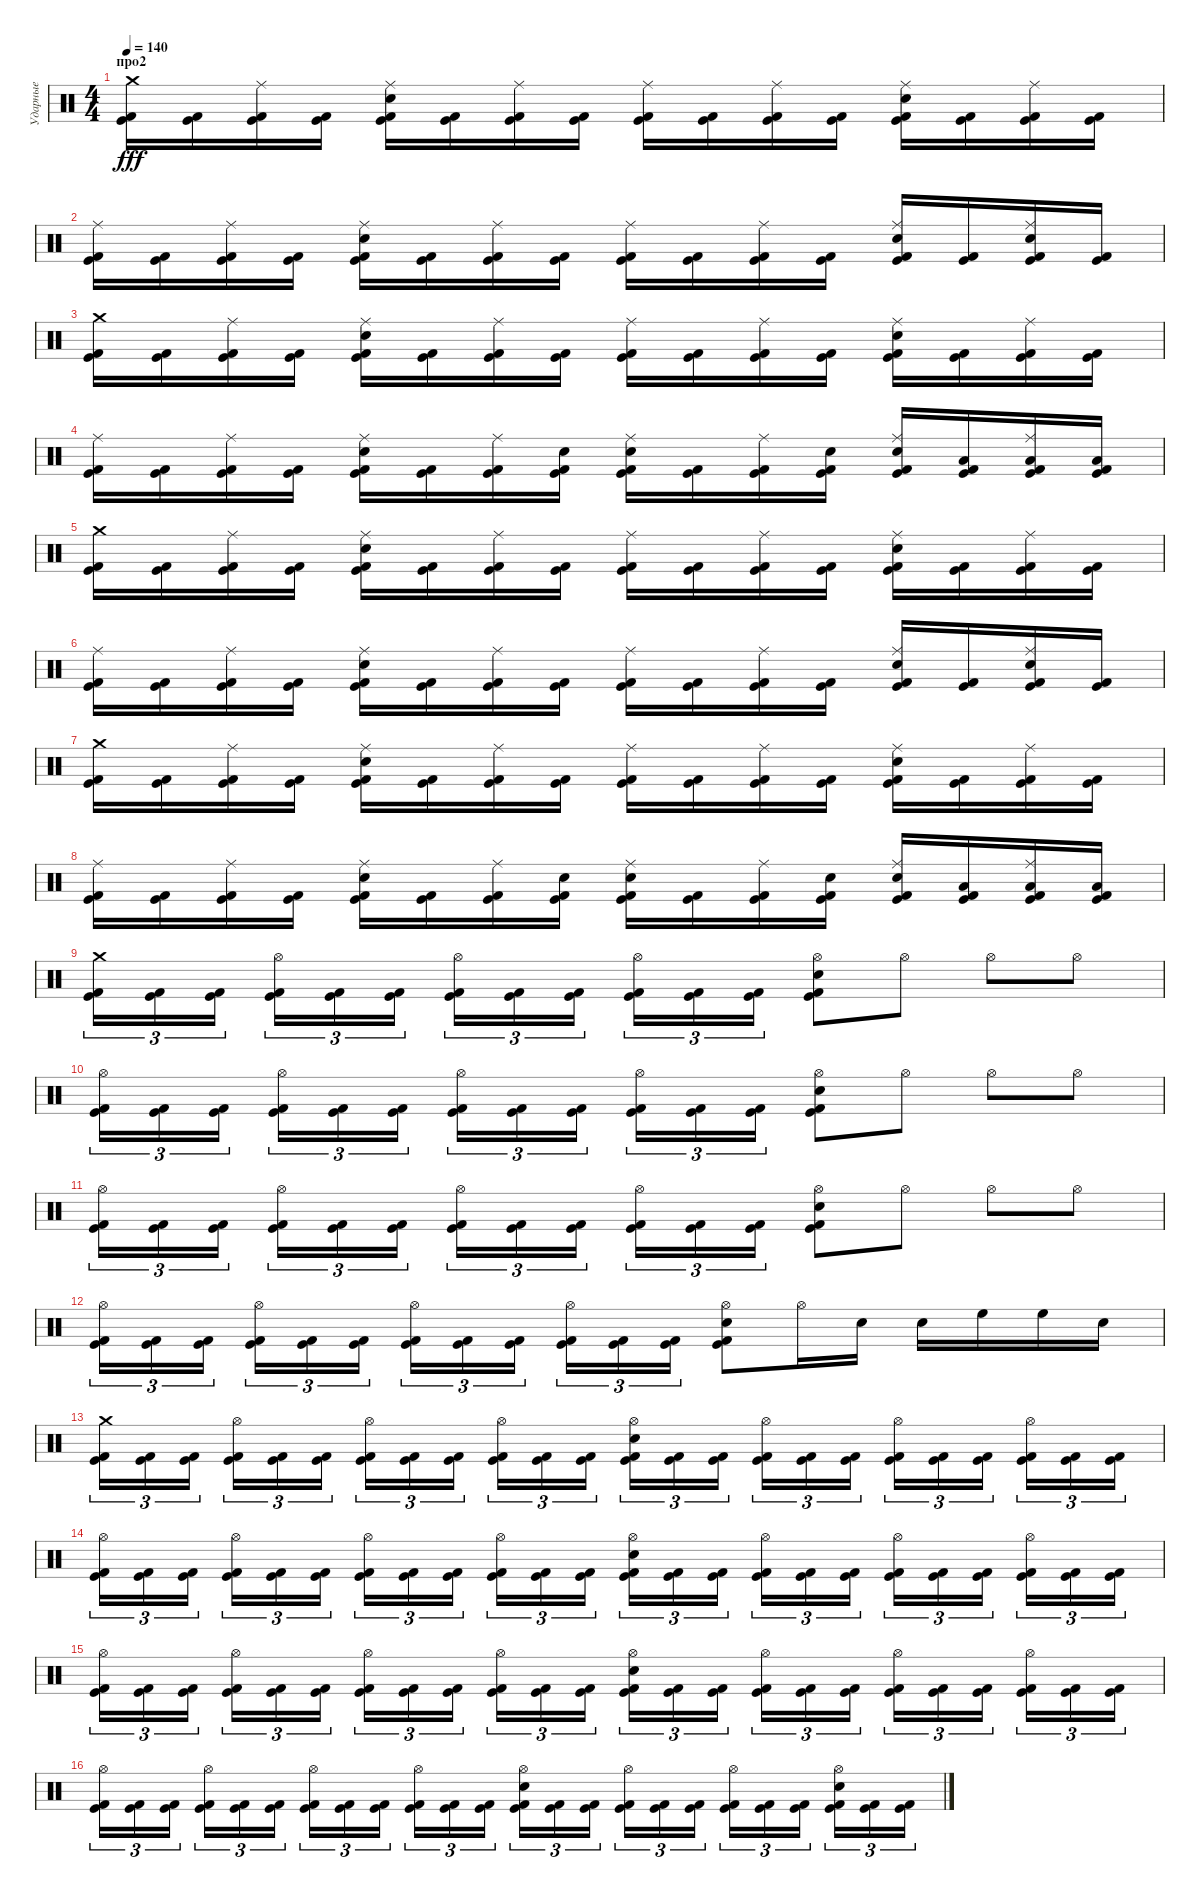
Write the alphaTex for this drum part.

\track ("Ударные" "Ударные") {instrument percussion}
\staff {score}
\articulation defaults
\ts (4 4)
\section ("" "про2")
\tempo 140
\clef neutral
\ks c
("Kick (hit)" "Kick (hit) 2" "Crash medium (hit)").16{dy fff} ("Kick (hit)" "Kick (hit) 2").16 ("Kick (hit)" "Kick (hit) 2" "Ride (middle)").16 ("Kick (hit)" "Kick (hit) 2").16 ("Kick (hit)" "Kick (hit) 2" "Ride (middle)" "Electric Snare (hit)").16 ("Kick (hit)" "Kick (hit) 2").16 ("Kick (hit)" "Kick (hit) 2" "Ride (middle)").16 ("Kick (hit)" "Kick (hit) 2").16 ("Kick (hit)" "Kick (hit) 2" "Ride (middle)").16 ("Kick (hit)" "Kick (hit) 2").16 ("Kick (hit)" "Kick (hit) 2" "Ride (middle)").16 ("Kick (hit)" "Kick (hit) 2").16 ("Kick (hit)" "Kick (hit) 2" "Ride (middle)" "Electric Snare (hit)").16 ("Kick (hit)" "Kick (hit) 2").16 ("Kick (hit)" "Kick (hit) 2" "Ride (middle)").16 ("Kick (hit)" "Kick (hit) 2").16 |
("Kick (hit)" "Kick (hit) 2" "Ride (middle)").16 ("Kick (hit)" "Kick (hit) 2").16 ("Kick (hit)" "Kick (hit) 2" "Ride (middle)").16 ("Kick (hit)" "Kick (hit) 2").16 ("Kick (hit)" "Kick (hit) 2" "Ride (middle)" "Electric Snare (hit)").16 ("Kick (hit)" "Kick (hit) 2").16 ("Kick (hit)" "Kick (hit) 2" "Ride (middle)").16 ("Kick (hit)" "Kick (hit) 2").16 ("Kick (hit)" "Kick (hit) 2" "Ride (middle)").16 ("Kick (hit)" "Kick (hit) 2").16 ("Kick (hit)" "Kick (hit) 2" "Ride (middle)").16 ("Kick (hit)" "Kick (hit) 2").16 ("Kick (hit)" "Kick (hit) 2" "Ride (middle)" "Electric Snare (hit)").16 ("Kick (hit)" "Kick (hit) 2").16 ("Kick (hit)" "Kick (hit) 2" "Ride (middle)" "Electric Snare (hit)").16 ("Kick (hit)" "Kick (hit) 2").16 |
("Kick (hit)" "Kick (hit) 2" "Crash medium (hit)").16 ("Kick (hit)" "Kick (hit) 2").16 ("Kick (hit)" "Kick (hit) 2" "Ride (middle)").16 ("Kick (hit)" "Kick (hit) 2").16 ("Kick (hit)" "Kick (hit) 2" "Ride (middle)" "Electric Snare (hit)").16 ("Kick (hit)" "Kick (hit) 2").16 ("Kick (hit)" "Kick (hit) 2" "Ride (middle)").16 ("Kick (hit)" "Kick (hit) 2").16 ("Kick (hit)" "Kick (hit) 2" "Ride (middle)").16 ("Kick (hit)" "Kick (hit) 2").16 ("Kick (hit)" "Kick (hit) 2" "Ride (middle)").16 ("Kick (hit)" "Kick (hit) 2").16 ("Kick (hit)" "Kick (hit) 2" "Ride (middle)" "Electric Snare (hit)").16 ("Kick (hit)" "Kick (hit) 2").16 ("Kick (hit)" "Kick (hit) 2" "Ride (middle)").16 ("Kick (hit)" "Kick (hit) 2").16 |
("Kick (hit)" "Kick (hit) 2" "Ride (middle)").16 ("Kick (hit)" "Kick (hit) 2").16 ("Kick (hit)" "Kick (hit) 2" "Ride (middle)").16 ("Kick (hit)" "Kick (hit) 2").16 ("Kick (hit)" "Kick (hit) 2" "Ride (middle)" "Electric Snare (hit)").16 ("Kick (hit)" "Kick (hit) 2").16 ("Kick (hit)" "Kick (hit) 2" "Ride (middle)").16 ("Kick (hit)" "Kick (hit) 2" "Electric Snare (hit)").16 ("Kick (hit)" "Kick (hit) 2" "Ride (middle)" "Electric Snare (hit)").16 ("Kick (hit)" "Kick (hit) 2").16 ("Kick (hit)" "Kick (hit) 2" "Ride (middle)").16 ("Kick (hit)" "Kick (hit) 2" "Electric Snare (hit)").16 ("Kick (hit)" "Kick (hit) 2" "Ride (middle)" "Electric Snare (hit)").16 ("Kick (hit)" "Kick (hit) 2" "Low Tom (hit)").16 ("Kick (hit)" "Kick (hit) 2" "Ride (middle)" "Low Tom (hit)").16 ("Kick (hit)" "Kick (hit) 2" "Low Tom (hit)").16 |
("Kick (hit)" "Kick (hit) 2" "Crash medium (hit)").16 ("Kick (hit)" "Kick (hit) 2").16 ("Kick (hit)" "Kick (hit) 2" "Ride (middle)").16 ("Kick (hit)" "Kick (hit) 2").16 ("Kick (hit)" "Kick (hit) 2" "Ride (middle)" "Electric Snare (hit)").16 ("Kick (hit)" "Kick (hit) 2").16 ("Kick (hit)" "Kick (hit) 2" "Ride (middle)").16 ("Kick (hit)" "Kick (hit) 2").16 ("Kick (hit)" "Kick (hit) 2" "Ride (middle)").16 ("Kick (hit)" "Kick (hit) 2").16 ("Kick (hit)" "Kick (hit) 2" "Ride (middle)").16 ("Kick (hit)" "Kick (hit) 2").16 ("Kick (hit)" "Kick (hit) 2" "Ride (middle)" "Electric Snare (hit)").16 ("Kick (hit)" "Kick (hit) 2").16 ("Kick (hit)" "Kick (hit) 2" "Ride (middle)").16 ("Kick (hit)" "Kick (hit) 2").16 |
("Kick (hit)" "Kick (hit) 2" "Ride (middle)").16 ("Kick (hit)" "Kick (hit) 2").16 ("Kick (hit)" "Kick (hit) 2" "Ride (middle)").16 ("Kick (hit)" "Kick (hit) 2").16 ("Kick (hit)" "Kick (hit) 2" "Ride (middle)" "Electric Snare (hit)").16 ("Kick (hit)" "Kick (hit) 2").16 ("Kick (hit)" "Kick (hit) 2" "Ride (middle)").16 ("Kick (hit)" "Kick (hit) 2").16 ("Kick (hit)" "Kick (hit) 2" "Ride (middle)").16 ("Kick (hit)" "Kick (hit) 2").16 ("Kick (hit)" "Kick (hit) 2" "Ride (middle)").16 ("Kick (hit)" "Kick (hit) 2").16 ("Kick (hit)" "Kick (hit) 2" "Ride (middle)" "Electric Snare (hit)").16 ("Kick (hit)" "Kick (hit) 2").16 ("Kick (hit)" "Kick (hit) 2" "Ride (middle)" "Electric Snare (hit)").16 ("Kick (hit)" "Kick (hit) 2").16 |
("Kick (hit)" "Kick (hit) 2" "Crash medium (hit)").16 ("Kick (hit)" "Kick (hit) 2").16 ("Kick (hit)" "Kick (hit) 2" "Ride (middle)").16 ("Kick (hit)" "Kick (hit) 2").16 ("Kick (hit)" "Kick (hit) 2" "Ride (middle)" "Electric Snare (hit)").16 ("Kick (hit)" "Kick (hit) 2").16 ("Kick (hit)" "Kick (hit) 2" "Ride (middle)").16 ("Kick (hit)" "Kick (hit) 2").16 ("Kick (hit)" "Kick (hit) 2" "Ride (middle)").16 ("Kick (hit)" "Kick (hit) 2").16 ("Kick (hit)" "Kick (hit) 2" "Ride (middle)").16 ("Kick (hit)" "Kick (hit) 2").16 ("Kick (hit)" "Kick (hit) 2" "Ride (middle)" "Electric Snare (hit)").16 ("Kick (hit)" "Kick (hit) 2").16 ("Kick (hit)" "Kick (hit) 2" "Ride (middle)").16 ("Kick (hit)" "Kick (hit) 2").16 |
("Kick (hit)" "Kick (hit) 2" "Ride (middle)").16 ("Kick (hit)" "Kick (hit) 2").16 ("Kick (hit)" "Kick (hit) 2" "Ride (middle)").16 ("Kick (hit)" "Kick (hit) 2").16 ("Kick (hit)" "Kick (hit) 2" "Ride (middle)" "Electric Snare (hit)").16 ("Kick (hit)" "Kick (hit) 2").16 ("Kick (hit)" "Kick (hit) 2" "Ride (middle)").16 ("Kick (hit)" "Kick (hit) 2" "Electric Snare (hit)").16 ("Kick (hit)" "Kick (hit) 2" "Ride (middle)" "Electric Snare (hit)").16 ("Kick (hit)" "Kick (hit) 2").16 ("Kick (hit)" "Kick (hit) 2" "Ride (middle)").16 ("Kick (hit)" "Kick (hit) 2" "Electric Snare (hit)").16 ("Kick (hit)" "Kick (hit) 2" "Ride (middle)" "Electric Snare (hit)").16 ("Kick (hit)" "Kick (hit) 2" "Low Tom (hit)").16 ("Kick (hit)" "Kick (hit) 2" "Ride (middle)" "Low Tom (hit)").16 ("Kick (hit)" "Kick (hit) 2" "Low Tom (hit)").16 |
("Kick (hit)" "Kick (hit) 2" "Crash medium (hit)").16{tu (3 2)} ("Kick (hit)" "Kick (hit) 2").16{tu (3 2)} ("Kick (hit)" "Kick (hit) 2").16{tu (3 2) beam splitsecondary} ("Hi-Hat (open)" "Kick (hit)" "Kick (hit) 2").16{tu (3 2)} ("Kick (hit)" "Kick (hit) 2").16{tu (3 2)} ("Kick (hit)" "Kick (hit) 2").16{tu (3 2)} ("Hi-Hat (open)" "Kick (hit)" "Kick (hit) 2").16{tu (3 2)} ("Kick (hit)" "Kick (hit) 2").16{tu (3 2)} ("Kick (hit)" "Kick (hit) 2").16{tu (3 2) beam splitsecondary} ("Hi-Hat (open)" "Kick (hit)" "Kick (hit) 2").16{tu (3 2)} ("Kick (hit)" "Kick (hit) 2").16{tu (3 2)} ("Kick (hit)" "Kick (hit) 2").16{tu (3 2)} ("Hi-Hat (open)" "Kick (hit)" "Kick (hit) 2" "Electric Snare (hit)").8 "Hi-Hat (open)".8 "Hi-Hat (open)".8 "Hi-Hat (open)".8 |
("Hi-Hat (open)" "Kick (hit)" "Kick (hit) 2").16{tu (3 2)} ("Kick (hit)" "Kick (hit) 2").16{tu (3 2)} ("Kick (hit)" "Kick (hit) 2").16{tu (3 2) beam splitsecondary} ("Hi-Hat (open)" "Kick (hit)" "Kick (hit) 2").16{tu (3 2)} ("Kick (hit)" "Kick (hit) 2").16{tu (3 2)} ("Kick (hit)" "Kick (hit) 2").16{tu (3 2)} ("Hi-Hat (open)" "Kick (hit)" "Kick (hit) 2").16{tu (3 2)} ("Kick (hit)" "Kick (hit) 2").16{tu (3 2)} ("Kick (hit)" "Kick (hit) 2").16{tu (3 2) beam splitsecondary} ("Hi-Hat (open)" "Kick (hit)" "Kick (hit) 2").16{tu (3 2)} ("Kick (hit)" "Kick (hit) 2").16{tu (3 2)} ("Kick (hit)" "Kick (hit) 2").16{tu (3 2)} ("Hi-Hat (open)" "Kick (hit)" "Kick (hit) 2" "Electric Snare (hit)").8 "Hi-Hat (open)".8 "Hi-Hat (open)".8 "Hi-Hat (open)".8 |
("Hi-Hat (open)" "Kick (hit)" "Kick (hit) 2").16{tu (3 2)} ("Kick (hit)" "Kick (hit) 2").16{tu (3 2)} ("Kick (hit)" "Kick (hit) 2").16{tu (3 2) beam splitsecondary} ("Hi-Hat (open)" "Kick (hit)" "Kick (hit) 2").16{tu (3 2)} ("Kick (hit)" "Kick (hit) 2").16{tu (3 2)} ("Kick (hit)" "Kick (hit) 2").16{tu (3 2)} ("Hi-Hat (open)" "Kick (hit)" "Kick (hit) 2").16{tu (3 2)} ("Kick (hit)" "Kick (hit) 2").16{tu (3 2)} ("Kick (hit)" "Kick (hit) 2").16{tu (3 2) beam splitsecondary} ("Hi-Hat (open)" "Kick (hit)" "Kick (hit) 2").16{tu (3 2)} ("Kick (hit)" "Kick (hit) 2").16{tu (3 2)} ("Kick (hit)" "Kick (hit) 2").16{tu (3 2)} ("Hi-Hat (open)" "Kick (hit)" "Kick (hit) 2" "Electric Snare (hit)").8 "Hi-Hat (open)".8 "Hi-Hat (open)".8 "Hi-Hat (open)".8 |
("Hi-Hat (open)" "Kick (hit)" "Kick (hit) 2").16{tu (3 2)} ("Kick (hit)" "Kick (hit) 2").16{tu (3 2)} ("Kick (hit)" "Kick (hit) 2").16{tu (3 2) beam splitsecondary} ("Hi-Hat (open)" "Kick (hit)" "Kick (hit) 2").16{tu (3 2)} ("Kick (hit)" "Kick (hit) 2").16{tu (3 2)} ("Kick (hit)" "Kick (hit) 2").16{tu (3 2)} ("Hi-Hat (open)" "Kick (hit)" "Kick (hit) 2").16{tu (3 2)} ("Kick (hit)" "Kick (hit) 2").16{tu (3 2)} ("Kick (hit)" "Kick (hit) 2").16{tu (3 2) beam splitsecondary} ("Hi-Hat (open)" "Kick (hit)" "Kick (hit) 2").16{tu (3 2)} ("Kick (hit)" "Kick (hit) 2").16{tu (3 2)} ("Kick (hit)" "Kick (hit) 2").16{tu (3 2)} ("Hi-Hat (open)" "Kick (hit)" "Kick (hit) 2" "Electric Snare (hit)").8 "Hi-Hat (open)".16 "Electric Snare (hit)".16 "Electric Snare (hit)".16 "High Floor Tom (hit)".16 "High Floor Tom (hit)".16 "Electric Snare (hit)".16 |
("Kick (hit)" "Kick (hit) 2" "Crash medium (hit)").16{tu (3 2)} ("Kick (hit)" "Kick (hit) 2").16{tu (3 2)} ("Kick (hit)" "Kick (hit) 2").16{tu (3 2) beam splitsecondary} ("Hi-Hat (open)" "Kick (hit)" "Kick (hit) 2").16{tu (3 2)} ("Kick (hit)" "Kick (hit) 2").16{tu (3 2)} ("Kick (hit)" "Kick (hit) 2").16{tu (3 2)} ("Hi-Hat (open)" "Kick (hit)" "Kick (hit) 2").16{tu (3 2)} ("Kick (hit)" "Kick (hit) 2").16{tu (3 2)} ("Kick (hit)" "Kick (hit) 2").16{tu (3 2) beam splitsecondary} ("Hi-Hat (open)" "Kick (hit)" "Kick (hit) 2").16{tu (3 2)} ("Kick (hit)" "Kick (hit) 2").16{tu (3 2)} ("Kick (hit)" "Kick (hit) 2").16{tu (3 2)} ("Hi-Hat (open)" "Kick (hit)" "Kick (hit) 2" "Electric Snare (hit)").16{tu (3 2)} ("Kick (hit)" "Kick (hit) 2").16{tu (3 2)} ("Kick (hit)" "Kick (hit) 2").16{tu (3 2) beam splitsecondary} ("Hi-Hat (open)" "Kick (hit)" "Kick (hit) 2").16{tu (3 2)} ("Kick (hit)" "Kick (hit) 2").16{tu (3 2)} ("Kick (hit)" "Kick (hit) 2").16{tu (3 2)} ("Hi-Hat (open)" "Kick (hit)" "Kick (hit) 2").16{tu (3 2)} ("Kick (hit)" "Kick (hit) 2").16{tu (3 2)} ("Kick (hit)" "Kick (hit) 2").16{tu (3 2) beam splitsecondary} ("Hi-Hat (open)" "Kick (hit)" "Kick (hit) 2").16{tu (3 2)} ("Kick (hit)" "Kick (hit) 2").16{tu (3 2)} ("Kick (hit)" "Kick (hit) 2").16{tu (3 2)} |
("Hi-Hat (open)" "Kick (hit)" "Kick (hit) 2").16{tu (3 2)} ("Kick (hit)" "Kick (hit) 2").16{tu (3 2)} ("Kick (hit)" "Kick (hit) 2").16{tu (3 2) beam splitsecondary} ("Hi-Hat (open)" "Kick (hit)" "Kick (hit) 2").16{tu (3 2)} ("Kick (hit)" "Kick (hit) 2").16{tu (3 2)} ("Kick (hit)" "Kick (hit) 2").16{tu (3 2)} ("Hi-Hat (open)" "Kick (hit)" "Kick (hit) 2").16{tu (3 2)} ("Kick (hit)" "Kick (hit) 2").16{tu (3 2)} ("Kick (hit)" "Kick (hit) 2").16{tu (3 2) beam splitsecondary} ("Hi-Hat (open)" "Kick (hit)" "Kick (hit) 2").16{tu (3 2)} ("Kick (hit)" "Kick (hit) 2").16{tu (3 2)} ("Kick (hit)" "Kick (hit) 2").16{tu (3 2)} ("Hi-Hat (open)" "Kick (hit)" "Kick (hit) 2" "Electric Snare (hit)").16{tu (3 2)} ("Kick (hit)" "Kick (hit) 2").16{tu (3 2)} ("Kick (hit)" "Kick (hit) 2").16{tu (3 2) beam splitsecondary} ("Hi-Hat (open)" "Kick (hit)" "Kick (hit) 2").16{tu (3 2)} ("Kick (hit)" "Kick (hit) 2").16{tu (3 2)} ("Kick (hit)" "Kick (hit) 2").16{tu (3 2)} ("Hi-Hat (open)" "Kick (hit)" "Kick (hit) 2").16{tu (3 2)} ("Kick (hit)" "Kick (hit) 2").16{tu (3 2)} ("Kick (hit)" "Kick (hit) 2").16{tu (3 2) beam splitsecondary} ("Hi-Hat (open)" "Kick (hit)" "Kick (hit) 2").16{tu (3 2)} ("Kick (hit)" "Kick (hit) 2").16{tu (3 2)} ("Kick (hit)" "Kick (hit) 2").16{tu (3 2)} |
("Hi-Hat (open)" "Kick (hit)" "Kick (hit) 2").16{tu (3 2)} ("Kick (hit)" "Kick (hit) 2").16{tu (3 2)} ("Kick (hit)" "Kick (hit) 2").16{tu (3 2) beam splitsecondary} ("Hi-Hat (open)" "Kick (hit)" "Kick (hit) 2").16{tu (3 2)} ("Kick (hit)" "Kick (hit) 2").16{tu (3 2)} ("Kick (hit)" "Kick (hit) 2").16{tu (3 2)} ("Hi-Hat (open)" "Kick (hit)" "Kick (hit) 2").16{tu (3 2)} ("Kick (hit)" "Kick (hit) 2").16{tu (3 2)} ("Kick (hit)" "Kick (hit) 2").16{tu (3 2) beam splitsecondary} ("Hi-Hat (open)" "Kick (hit)" "Kick (hit) 2").16{tu (3 2)} ("Kick (hit)" "Kick (hit) 2").16{tu (3 2)} ("Kick (hit)" "Kick (hit) 2").16{tu (3 2)} ("Hi-Hat (open)" "Kick (hit)" "Kick (hit) 2" "Electric Snare (hit)").16{tu (3 2)} ("Kick (hit)" "Kick (hit) 2").16{tu (3 2)} ("Kick (hit)" "Kick (hit) 2").16{tu (3 2) beam splitsecondary} ("Hi-Hat (open)" "Kick (hit)" "Kick (hit) 2").16{tu (3 2)} ("Kick (hit)" "Kick (hit) 2").16{tu (3 2)} ("Kick (hit)" "Kick (hit) 2").16{tu (3 2)} ("Hi-Hat (open)" "Kick (hit)" "Kick (hit) 2").16{tu (3 2)} ("Kick (hit)" "Kick (hit) 2").16{tu (3 2)} ("Kick (hit)" "Kick (hit) 2").16{tu (3 2) beam splitsecondary} ("Hi-Hat (open)" "Kick (hit)" "Kick (hit) 2").16{tu (3 2)} ("Kick (hit)" "Kick (hit) 2").16{tu (3 2)} ("Kick (hit)" "Kick (hit) 2").16{tu (3 2)} |
("Hi-Hat (open)" "Kick (hit)" "Kick (hit) 2").16{tu (3 2)} ("Kick (hit)" "Kick (hit) 2").16{tu (3 2)} ("Kick (hit)" "Kick (hit) 2").16{tu (3 2) beam splitsecondary} ("Hi-Hat (open)" "Kick (hit)" "Kick (hit) 2").16{tu (3 2)} ("Kick (hit)" "Kick (hit) 2").16{tu (3 2)} ("Kick (hit)" "Kick (hit) 2").16{tu (3 2)} ("Hi-Hat (open)" "Kick (hit)" "Kick (hit) 2").16{tu (3 2)} ("Kick (hit)" "Kick (hit) 2").16{tu (3 2)} ("Kick (hit)" "Kick (hit) 2").16{tu (3 2) beam splitsecondary} ("Hi-Hat (open)" "Kick (hit)" "Kick (hit) 2").16{tu (3 2)} ("Kick (hit)" "Kick (hit) 2").16{tu (3 2)} ("Kick (hit)" "Kick (hit) 2").16{tu (3 2)} ("Hi-Hat (open)" "Kick (hit)" "Kick (hit) 2" "Electric Snare (hit)").16{tu (3 2)} ("Kick (hit)" "Kick (hit) 2").16{tu (3 2)} ("Kick (hit)" "Kick (hit) 2").16{tu (3 2) beam splitsecondary} ("Hi-Hat (open)" "Kick (hit)" "Kick (hit) 2").16{tu (3 2)} ("Kick (hit)" "Kick (hit) 2").16{tu (3 2)} ("Kick (hit)" "Kick (hit) 2").16{tu (3 2)} ("Hi-Hat (open)" "Kick (hit)" "Kick (hit) 2").16{tu (3 2)} ("Kick (hit)" "Kick (hit) 2").16{tu (3 2)} ("Kick (hit)" "Kick (hit) 2").16{tu (3 2) beam splitsecondary} ("Hi-Hat (open)" "Kick (hit)" "Kick (hit) 2" "Electric Snare (hit)").16{tu (3 2)} ("Kick (hit)" "Kick (hit) 2").16{tu (3 2)} ("Kick (hit)" "Kick (hit) 2").16{tu (3 2)}
